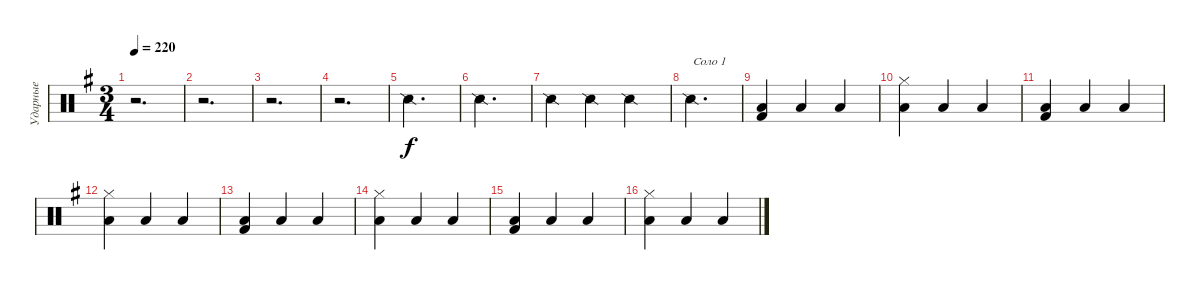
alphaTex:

\track ("Ударные" "Ударные") {instrument percussion}
\staff {score}
\articulation defaults
\ts (3 4)
\tempo 220
\clef neutral
\ks eminor
r.2{d dy f} |
r.2{d} |
r.2{d} |
r.2{d} |
"Snare (side stick) 2".2{d} |
"Snare (side stick) 2".2{d} |
"Snare (side stick) 2".4 "Snare (side stick) 2".4 "Snare (side stick) 2".4 |
"Snare (side stick) 2".2{d txt "Соло 1"} |
("Kick (hit) 2" "Low Tom (hit)").4 "Low Tom (hit)".4 "Low Tom (hit)".4 |
("Hi-Hat (closed)" "Low Tom (hit)").4 "Low Tom (hit)".4 "Low Tom (hit)".4 |
("Kick (hit) 2" "Low Tom (hit)").4 "Low Tom (hit)".4 "Low Tom (hit)".4 |
("Hi-Hat (closed)" "Low Tom (hit)").4 "Low Tom (hit)".4 "Low Tom (hit)".4 |
("Kick (hit) 2" "Low Tom (hit)").4 "Low Tom (hit)".4 "Low Tom (hit)".4 |
("Hi-Hat (closed)" "Low Tom (hit)").4 "Low Tom (hit)".4 "Low Tom (hit)".4 |
("Kick (hit) 2" "Low Tom (hit)").4 "Low Tom (hit)".4 "Low Tom (hit)".4 |
("Hi-Hat (closed)" "Low Tom (hit)").4 "Low Tom (hit)".4 "Low Tom (hit)".4
